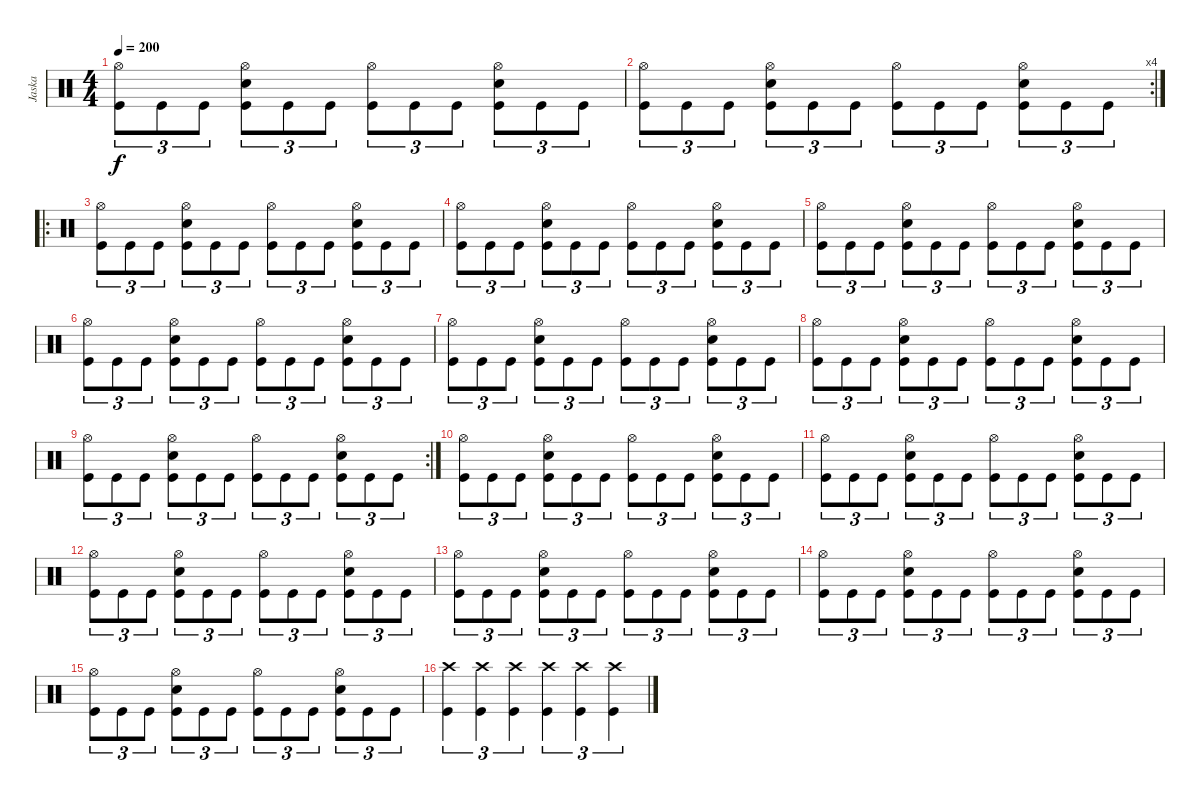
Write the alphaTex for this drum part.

\track ("Jaska" "Jaska") {instrument percussion}
\staff {score}
\articulation defaults
\ts (4 4)
\tempo 200
\clef neutral
\ks c
("Hi-Hat (open)" "Kick (hit)").8{tu (3 2) dy f} "Kick (hit)".8{tu (3 2)} "Kick (hit)".8{tu (3 2)} ("Hi-Hat (open)" "Snare (hit) 2" "Kick (hit)").8{tu (3 2)} "Kick (hit)".8{tu (3 2)} "Kick (hit)".8{tu (3 2)} ("Hi-Hat (open)" "Kick (hit)").8{tu (3 2)} "Kick (hit)".8{tu (3 2)} "Kick (hit)".8{tu (3 2)} ("Hi-Hat (open)" "Snare (hit) 2" "Kick (hit)").8{tu (3 2)} "Kick (hit)".8{tu (3 2)} "Kick (hit)".8{tu (3 2)} |
\rc 4
("Hi-Hat (open)" "Kick (hit)").8{tu (3 2)} "Kick (hit)".8{tu (3 2)} "Kick (hit)".8{tu (3 2)} ("Hi-Hat (open)" "Snare (hit) 2" "Kick (hit)").8{tu (3 2)} "Kick (hit)".8{tu (3 2)} "Kick (hit)".8{tu (3 2)} ("Hi-Hat (open)" "Kick (hit)").8{tu (3 2)} "Kick (hit)".8{tu (3 2)} "Kick (hit)".8{tu (3 2)} ("Hi-Hat (open)" "Snare (hit) 2" "Kick (hit)").8{tu (3 2)} "Kick (hit)".8{tu (3 2)} "Kick (hit)".8{tu (3 2)} |
\ro
("Hi-Hat (open)" "Kick (hit)").8{tu (3 2)} "Kick (hit)".8{tu (3 2)} "Kick (hit)".8{tu (3 2)} ("Hi-Hat (open)" "Snare (hit) 2" "Kick (hit)").8{tu (3 2)} "Kick (hit)".8{tu (3 2)} "Kick (hit)".8{tu (3 2)} ("Hi-Hat (open)" "Kick (hit)").8{tu (3 2)} "Kick (hit)".8{tu (3 2)} "Kick (hit)".8{tu (3 2)} ("Hi-Hat (open)" "Snare (hit) 2" "Kick (hit)").8{tu (3 2)} "Kick (hit)".8{tu (3 2)} "Kick (hit)".8{tu (3 2)} |
("Hi-Hat (open)" "Kick (hit)").8{tu (3 2)} "Kick (hit)".8{tu (3 2)} "Kick (hit)".8{tu (3 2)} ("Hi-Hat (open)" "Snare (hit) 2" "Kick (hit)").8{tu (3 2)} "Kick (hit)".8{tu (3 2)} "Kick (hit)".8{tu (3 2)} ("Hi-Hat (open)" "Kick (hit)").8{tu (3 2)} "Kick (hit)".8{tu (3 2)} "Kick (hit)".8{tu (3 2)} ("Hi-Hat (open)" "Snare (hit) 2" "Kick (hit)").8{tu (3 2)} "Kick (hit)".8{tu (3 2)} "Kick (hit)".8{tu (3 2)} |
("Hi-Hat (open)" "Kick (hit)").8{tu (3 2)} "Kick (hit)".8{tu (3 2)} "Kick (hit)".8{tu (3 2)} ("Hi-Hat (open)" "Snare (hit) 2" "Kick (hit)").8{tu (3 2)} "Kick (hit)".8{tu (3 2)} "Kick (hit)".8{tu (3 2)} ("Hi-Hat (open)" "Kick (hit)").8{tu (3 2)} "Kick (hit)".8{tu (3 2)} "Kick (hit)".8{tu (3 2)} ("Hi-Hat (open)" "Snare (hit) 2" "Kick (hit)").8{tu (3 2)} "Kick (hit)".8{tu (3 2)} "Kick (hit)".8{tu (3 2)} |
("Hi-Hat (open)" "Kick (hit)").8{tu (3 2)} "Kick (hit)".8{tu (3 2)} "Kick (hit)".8{tu (3 2)} ("Hi-Hat (open)" "Snare (hit) 2" "Kick (hit)").8{tu (3 2)} "Kick (hit)".8{tu (3 2)} "Kick (hit)".8{tu (3 2)} ("Hi-Hat (open)" "Kick (hit)").8{tu (3 2)} "Kick (hit)".8{tu (3 2)} "Kick (hit)".8{tu (3 2)} ("Hi-Hat (open)" "Snare (hit) 2" "Kick (hit)").8{tu (3 2)} "Kick (hit)".8{tu (3 2)} "Kick (hit)".8{tu (3 2)} |
("Hi-Hat (open)" "Kick (hit)").8{tu (3 2)} "Kick (hit)".8{tu (3 2)} "Kick (hit)".8{tu (3 2)} ("Hi-Hat (open)" "Snare (hit) 2" "Kick (hit)").8{tu (3 2)} "Kick (hit)".8{tu (3 2)} "Kick (hit)".8{tu (3 2)} ("Hi-Hat (open)" "Kick (hit)").8{tu (3 2)} "Kick (hit)".8{tu (3 2)} "Kick (hit)".8{tu (3 2)} ("Hi-Hat (open)" "Snare (hit) 2" "Kick (hit)").8{tu (3 2)} "Kick (hit)".8{tu (3 2)} "Kick (hit)".8{tu (3 2)} |
("Hi-Hat (open)" "Kick (hit)").8{tu (3 2)} "Kick (hit)".8{tu (3 2)} "Kick (hit)".8{tu (3 2)} ("Hi-Hat (open)" "Snare (hit) 2" "Kick (hit)").8{tu (3 2)} "Kick (hit)".8{tu (3 2)} "Kick (hit)".8{tu (3 2)} ("Hi-Hat (open)" "Kick (hit)").8{tu (3 2)} "Kick (hit)".8{tu (3 2)} "Kick (hit)".8{tu (3 2)} ("Hi-Hat (open)" "Snare (hit) 2" "Kick (hit)").8{tu (3 2)} "Kick (hit)".8{tu (3 2)} "Kick (hit)".8{tu (3 2)} |
\rc 2
("Hi-Hat (open)" "Kick (hit)").8{tu (3 2)} "Kick (hit)".8{tu (3 2)} "Kick (hit)".8{tu (3 2)} ("Hi-Hat (open)" "Snare (hit) 2" "Kick (hit)").8{tu (3 2)} "Kick (hit)".8{tu (3 2)} "Kick (hit)".8{tu (3 2)} ("Hi-Hat (open)" "Kick (hit)").8{tu (3 2)} "Kick (hit)".8{tu (3 2)} "Kick (hit)".8{tu (3 2)} ("Hi-Hat (open)" "Snare (hit) 2" "Kick (hit)").8{tu (3 2)} "Kick (hit)".8{tu (3 2)} "Kick (hit)".8{tu (3 2)} |
("Hi-Hat (open)" "Kick (hit)").8{tu (3 2)} "Kick (hit)".8{tu (3 2)} "Kick (hit)".8{tu (3 2)} ("Hi-Hat (open)" "Snare (hit) 2" "Kick (hit)").8{tu (3 2)} "Kick (hit)".8{tu (3 2)} "Kick (hit)".8{tu (3 2)} ("Hi-Hat (open)" "Kick (hit)").8{tu (3 2)} "Kick (hit)".8{tu (3 2)} "Kick (hit)".8{tu (3 2)} ("Hi-Hat (open)" "Snare (hit) 2" "Kick (hit)").8{tu (3 2)} "Kick (hit)".8{tu (3 2)} "Kick (hit)".8{tu (3 2)} |
("Hi-Hat (open)" "Kick (hit)").8{tu (3 2)} "Kick (hit)".8{tu (3 2)} "Kick (hit)".8{tu (3 2)} ("Hi-Hat (open)" "Snare (hit) 2" "Kick (hit)").8{tu (3 2)} "Kick (hit)".8{tu (3 2)} "Kick (hit)".8{tu (3 2)} ("Hi-Hat (open)" "Kick (hit)").8{tu (3 2)} "Kick (hit)".8{tu (3 2)} "Kick (hit)".8{tu (3 2)} ("Hi-Hat (open)" "Snare (hit) 2" "Kick (hit)").8{tu (3 2)} "Kick (hit)".8{tu (3 2)} "Kick (hit)".8{tu (3 2)} |
("Hi-Hat (open)" "Kick (hit)").8{tu (3 2)} "Kick (hit)".8{tu (3 2)} "Kick (hit)".8{tu (3 2)} ("Hi-Hat (open)" "Snare (hit) 2" "Kick (hit)").8{tu (3 2)} "Kick (hit)".8{tu (3 2)} "Kick (hit)".8{tu (3 2)} ("Hi-Hat (open)" "Kick (hit)").8{tu (3 2)} "Kick (hit)".8{tu (3 2)} "Kick (hit)".8{tu (3 2)} ("Hi-Hat (open)" "Snare (hit) 2" "Kick (hit)").8{tu (3 2)} "Kick (hit)".8{tu (3 2)} "Kick (hit)".8{tu (3 2)} |
("Hi-Hat (open)" "Kick (hit)").8{tu (3 2)} "Kick (hit)".8{tu (3 2)} "Kick (hit)".8{tu (3 2)} ("Hi-Hat (open)" "Snare (hit) 2" "Kick (hit)").8{tu (3 2)} "Kick (hit)".8{tu (3 2)} "Kick (hit)".8{tu (3 2)} ("Hi-Hat (open)" "Kick (hit)").8{tu (3 2)} "Kick (hit)".8{tu (3 2)} "Kick (hit)".8{tu (3 2)} ("Hi-Hat (open)" "Snare (hit) 2" "Kick (hit)").8{tu (3 2)} "Kick (hit)".8{tu (3 2)} "Kick (hit)".8{tu (3 2)} |
("Hi-Hat (open)" "Kick (hit)").8{tu (3 2)} "Kick (hit)".8{tu (3 2)} "Kick (hit)".8{tu (3 2)} ("Hi-Hat (open)" "Snare (hit) 2" "Kick (hit)").8{tu (3 2)} "Kick (hit)".8{tu (3 2)} "Kick (hit)".8{tu (3 2)} ("Hi-Hat (open)" "Kick (hit)").8{tu (3 2)} "Kick (hit)".8{tu (3 2)} "Kick (hit)".8{tu (3 2)} ("Hi-Hat (open)" "Snare (hit) 2" "Kick (hit)").8{tu (3 2)} "Kick (hit)".8{tu (3 2)} "Kick (hit)".8{tu (3 2)} |
("Hi-Hat (open)" "Kick (hit)").8{tu (3 2)} "Kick (hit)".8{tu (3 2)} "Kick (hit)".8{tu (3 2)} ("Hi-Hat (open)" "Snare (hit) 2" "Kick (hit)").8{tu (3 2)} "Kick (hit)".8{tu (3 2)} "Kick (hit)".8{tu (3 2)} ("Hi-Hat (open)" "Kick (hit)").8{tu (3 2)} "Kick (hit)".8{tu (3 2)} "Kick (hit)".8{tu (3 2)} ("Hi-Hat (open)" "Snare (hit) 2" "Kick (hit)").8{tu (3 2)} "Kick (hit)".8{tu (3 2)} "Kick (hit)".8{tu (3 2)} |
("Crash high (hit)" "Kick (hit)").4{tu (3 2)} ("Crash high (hit)" "Kick (hit)").4{tu (3 2)} ("Crash high (hit)" "Kick (hit)").4{tu (3 2)} ("Crash high (hit)" "Kick (hit)").4{tu (3 2)} ("Crash high (hit)" "Kick (hit)").4{tu (3 2)} ("Crash high (hit)" "Kick (hit)").4{tu (3 2)}
